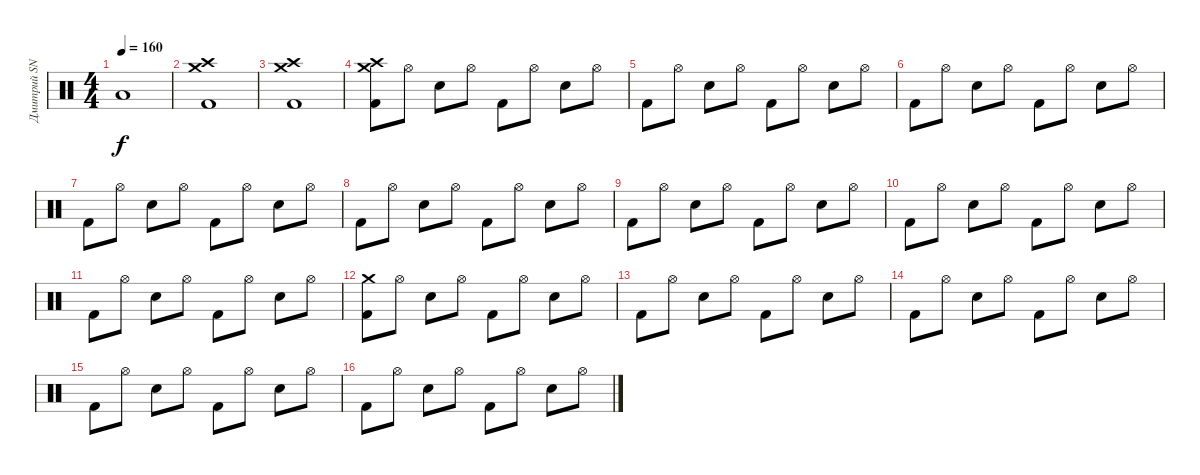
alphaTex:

\track ("Дмитрий SNAKE Хакимов" "Дмитрий SN") {instrument percussion}
\staff {score}
\articulation defaults
\ts (4 4)
\tempo 160
\clef neutral
\ks c "Low Tom (hit)".1{dy f}
|
("Crash high (hit)" "Crash medium (hit)" "Kick (hit) 2").1 |
("Crash high (hit)" "Crash medium (hit)" "Kick (hit) 2").1 |
("Crash high (hit)" "Crash medium (hit)" "Kick (hit) 2").8 "Hi-Hat (open)".8 "Electric Snare (hit)".8 "Hi-Hat (open)".8 "Kick (hit) 2".8 "Hi-Hat (open)".8 "Electric Snare (hit)".8 "Hi-Hat (open)".8 |
"Kick (hit) 2".8 "Hi-Hat (open)".8 "Electric Snare (hit)".8 "Hi-Hat (open)".8 "Kick (hit) 2".8 "Hi-Hat (open)".8 "Electric Snare (hit)".8 "Hi-Hat (open)".8 |
"Kick (hit) 2".8 "Hi-Hat (open)".8 "Electric Snare (hit)".8 "Hi-Hat (open)".8 "Kick (hit) 2".8 "Hi-Hat (open)".8 "Electric Snare (hit)".8 "Hi-Hat (open)".8 |
"Kick (hit) 2".8 "Hi-Hat (open)".8 "Electric Snare (hit)".8 "Hi-Hat (open)".8 "Kick (hit) 2".8 "Hi-Hat (open)".8 "Electric Snare (hit)".8 "Hi-Hat (open)".8 |
"Kick (hit) 2".8 "Hi-Hat (open)".8 "Electric Snare (hit)".8 "Hi-Hat (open)".8 "Kick (hit) 2".8 "Hi-Hat (open)".8 "Electric Snare (hit)".8 "Hi-Hat (open)".8 |
"Kick (hit) 2".8 "Hi-Hat (open)".8 "Electric Snare (hit)".8 "Hi-Hat (open)".8 "Kick (hit) 2".8 "Hi-Hat (open)".8 "Electric Snare (hit)".8 "Hi-Hat (open)".8 |
"Kick (hit) 2".8 "Hi-Hat (open)".8 "Electric Snare (hit)".8 "Hi-Hat (open)".8 "Kick (hit) 2".8 "Hi-Hat (open)".8 "Electric Snare (hit)".8 "Hi-Hat (open)".8 |
"Kick (hit) 2".8 "Hi-Hat (open)".8 "Electric Snare (hit)".8 "Hi-Hat (open)".8 "Kick (hit) 2".8 "Hi-Hat (open)".8 "Electric Snare (hit)".8 "Hi-Hat (open)".8 |
("Crash medium (hit)" "Kick (hit) 2").8 "Hi-Hat (open)".8 "Electric Snare (hit)".8 "Hi-Hat (open)".8 "Kick (hit) 2".8 "Hi-Hat (open)".8 "Electric Snare (hit)".8 "Hi-Hat (open)".8 |
"Kick (hit) 2".8 "Hi-Hat (open)".8 "Electric Snare (hit)".8 "Hi-Hat (open)".8 "Kick (hit) 2".8 "Hi-Hat (open)".8 "Electric Snare (hit)".8 "Hi-Hat (open)".8 |
"Kick (hit) 2".8 "Hi-Hat (open)".8 "Electric Snare (hit)".8 "Hi-Hat (open)".8 "Kick (hit) 2".8 "Hi-Hat (open)".8 "Electric Snare (hit)".8 "Hi-Hat (open)".8 |
"Kick (hit) 2".8 "Hi-Hat (open)".8 "Electric Snare (hit)".8 "Hi-Hat (open)".8 "Kick (hit) 2".8 "Hi-Hat (open)".8 "Electric Snare (hit)".8 "Hi-Hat (open)".8 |
"Kick (hit) 2".8 "Hi-Hat (open)".8 "Electric Snare (hit)".8 "Hi-Hat (open)".8 "Kick (hit) 2".8 "Hi-Hat (open)".8 "Electric Snare (hit)".8 "Hi-Hat (open)".8
